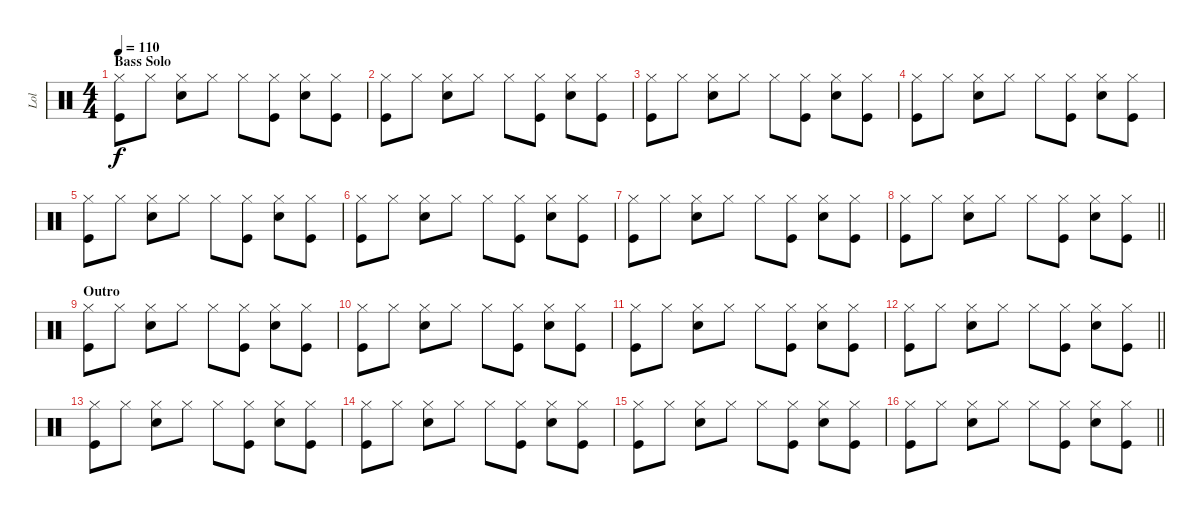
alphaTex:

\track ("Lol" "Lol") {instrument percussion}
\staff {score}
\articulation defaults
\ts (4 4)
\section ("" "Bass Solo")
\tempo 110
\clef neutral
\ks c
("Hi-Hat (closed)" "Kick (hit)").8{dy f} "Hi-Hat (closed)".8 ("Hi-Hat (closed)" "Electric Snare (hit)").8 "Hi-Hat (closed)".8 "Hi-Hat (closed)".8 ("Hi-Hat (closed)" "Kick (hit)").8 ("Hi-Hat (closed)" "Electric Snare (hit)").8 ("Hi-Hat (closed)" "Kick (hit)").8 |
("Hi-Hat (closed)" "Kick (hit)").8 "Hi-Hat (closed)".8 ("Hi-Hat (closed)" "Electric Snare (hit)").8 "Hi-Hat (closed)".8 "Hi-Hat (closed)".8 ("Hi-Hat (closed)" "Kick (hit)").8 ("Hi-Hat (closed)" "Electric Snare (hit)").8 ("Hi-Hat (closed)" "Kick (hit)").8 |
("Hi-Hat (closed)" "Kick (hit)").8 "Hi-Hat (closed)".8 ("Hi-Hat (closed)" "Electric Snare (hit)").8 "Hi-Hat (closed)".8 "Hi-Hat (closed)".8 ("Hi-Hat (closed)" "Kick (hit)").8 ("Hi-Hat (closed)" "Electric Snare (hit)").8 ("Hi-Hat (closed)" "Kick (hit)").8 |
("Hi-Hat (closed)" "Kick (hit)").8 "Hi-Hat (closed)".8 ("Hi-Hat (closed)" "Electric Snare (hit)").8 "Hi-Hat (closed)".8 "Hi-Hat (closed)".8 ("Hi-Hat (closed)" "Kick (hit)").8 ("Hi-Hat (closed)" "Electric Snare (hit)").8 ("Hi-Hat (closed)" "Kick (hit)").8 |
("Hi-Hat (closed)" "Kick (hit)").8 "Hi-Hat (closed)".8 ("Hi-Hat (closed)" "Electric Snare (hit)").8 "Hi-Hat (closed)".8 "Hi-Hat (closed)".8 ("Hi-Hat (closed)" "Kick (hit)").8 ("Hi-Hat (closed)" "Electric Snare (hit)").8 ("Hi-Hat (closed)" "Kick (hit)").8 |
("Hi-Hat (closed)" "Kick (hit)").8 "Hi-Hat (closed)".8 ("Hi-Hat (closed)" "Electric Snare (hit)").8 "Hi-Hat (closed)".8 "Hi-Hat (closed)".8 ("Hi-Hat (closed)" "Kick (hit)").8 ("Hi-Hat (closed)" "Electric Snare (hit)").8 ("Hi-Hat (closed)" "Kick (hit)").8 |
("Hi-Hat (closed)" "Kick (hit)").8 "Hi-Hat (closed)".8 ("Hi-Hat (closed)" "Electric Snare (hit)").8 "Hi-Hat (closed)".8 "Hi-Hat (closed)".8 ("Hi-Hat (closed)" "Kick (hit)").8 ("Hi-Hat (closed)" "Electric Snare (hit)").8 ("Hi-Hat (closed)" "Kick (hit)").8 |
\barLineRight lightlight
("Hi-Hat (closed)" "Kick (hit)").8 "Hi-Hat (closed)".8 ("Hi-Hat (closed)" "Electric Snare (hit)").8 "Hi-Hat (closed)".8 "Hi-Hat (closed)".8 ("Hi-Hat (closed)" "Kick (hit)").8 ("Hi-Hat (closed)" "Electric Snare (hit)").8 ("Hi-Hat (closed)" "Kick (hit)").8 |
\section ("" "Outro")
("Hi-Hat (closed)" "Kick (hit)").8 "Hi-Hat (closed)".8 ("Hi-Hat (closed)" "Electric Snare (hit)").8 "Hi-Hat (closed)".8 "Hi-Hat (closed)".8 ("Hi-Hat (closed)" "Kick (hit)").8 ("Hi-Hat (closed)" "Electric Snare (hit)").8 ("Hi-Hat (closed)" "Kick (hit)").8 |
("Hi-Hat (closed)" "Kick (hit)").8 "Hi-Hat (closed)".8 ("Hi-Hat (closed)" "Electric Snare (hit)").8 "Hi-Hat (closed)".8 "Hi-Hat (closed)".8 ("Hi-Hat (closed)" "Kick (hit)").8 ("Hi-Hat (closed)" "Electric Snare (hit)").8 ("Hi-Hat (closed)" "Kick (hit)").8 |
("Hi-Hat (closed)" "Kick (hit)").8 "Hi-Hat (closed)".8 ("Hi-Hat (closed)" "Electric Snare (hit)").8 "Hi-Hat (closed)".8 "Hi-Hat (closed)".8 ("Hi-Hat (closed)" "Kick (hit)").8 ("Hi-Hat (closed)" "Electric Snare (hit)").8 ("Hi-Hat (closed)" "Kick (hit)").8 |
\barLineRight lightlight
("Hi-Hat (closed)" "Kick (hit)").8 "Hi-Hat (closed)".8 ("Hi-Hat (closed)" "Electric Snare (hit)").8 "Hi-Hat (closed)".8 "Hi-Hat (closed)".8 ("Hi-Hat (closed)" "Kick (hit)").8 ("Hi-Hat (closed)" "Electric Snare (hit)").8 ("Hi-Hat (closed)" "Kick (hit)").8 |
("Hi-Hat (closed)" "Kick (hit)").8 "Hi-Hat (closed)".8 ("Hi-Hat (closed)" "Electric Snare (hit)").8 "Hi-Hat (closed)".8 "Hi-Hat (closed)".8 ("Hi-Hat (closed)" "Kick (hit)").8 ("Hi-Hat (closed)" "Electric Snare (hit)").8 ("Hi-Hat (closed)" "Kick (hit)").8 |
("Hi-Hat (closed)" "Kick (hit)").8 "Hi-Hat (closed)".8 ("Hi-Hat (closed)" "Electric Snare (hit)").8 "Hi-Hat (closed)".8 "Hi-Hat (closed)".8 ("Hi-Hat (closed)" "Kick (hit)").8 ("Hi-Hat (closed)" "Electric Snare (hit)").8 ("Hi-Hat (closed)" "Kick (hit)").8 |
("Hi-Hat (closed)" "Kick (hit)").8 "Hi-Hat (closed)".8 ("Hi-Hat (closed)" "Electric Snare (hit)").8 "Hi-Hat (closed)".8 "Hi-Hat (closed)".8 ("Hi-Hat (closed)" "Kick (hit)").8 ("Hi-Hat (closed)" "Electric Snare (hit)").8 ("Hi-Hat (closed)" "Kick (hit)").8 |
\barLineRight lightlight
("Hi-Hat (closed)" "Kick (hit)").8 "Hi-Hat (closed)".8 ("Hi-Hat (closed)" "Electric Snare (hit)").8 "Hi-Hat (closed)".8 "Hi-Hat (closed)".8 ("Hi-Hat (closed)" "Kick (hit)").8 ("Hi-Hat (closed)" "Electric Snare (hit)").8 ("Hi-Hat (closed)" "Kick (hit)").8
